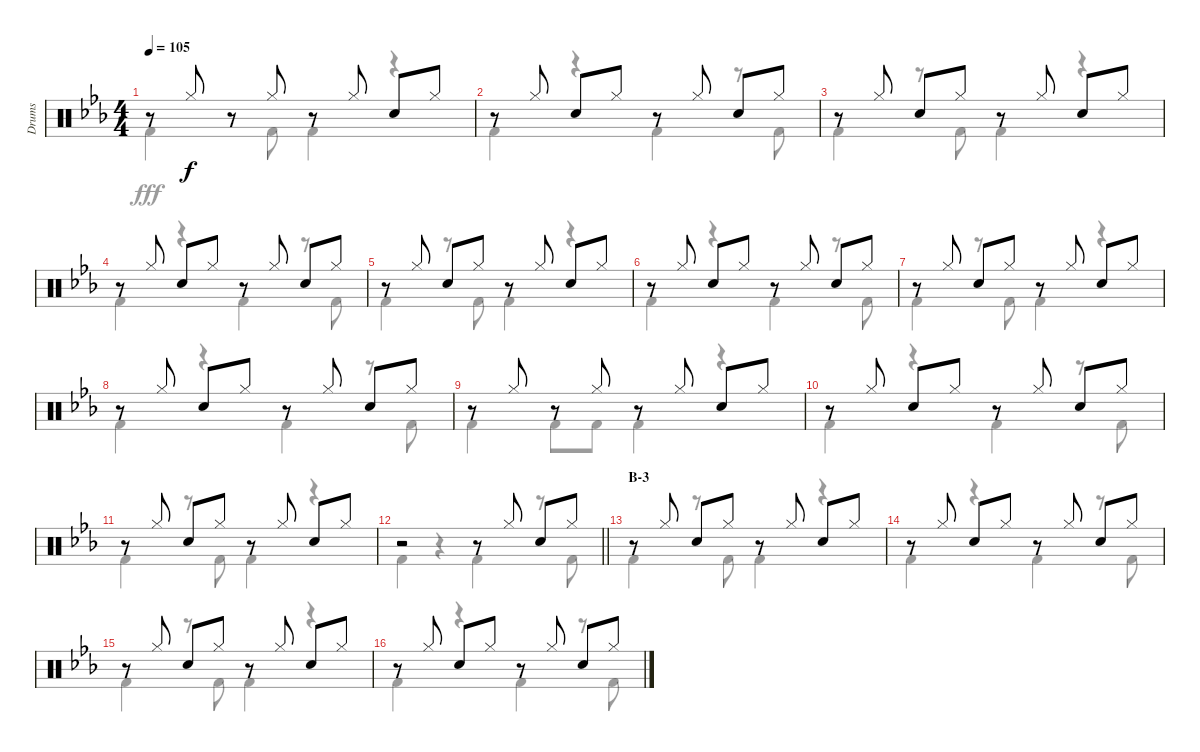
\track ("Drums" "Drums") {instrument percussion}
\staff {score}
\articulation defaults
\voice
\ts (4 4)
\tempo 105
\clef neutral
\ks eb
r.8{dy f} "Hi-Hat (closed)".8 r.8 "Hi-Hat (closed)".8 r.8 "Hi-Hat (closed)".8 "Snare (hit) 2".8 "Hi-Hat (closed)".8 |
r.8 "Hi-Hat (closed)".8 "Snare (hit) 2".8 "Hi-Hat (closed)".8 r.8 "Hi-Hat (closed)".8 "Snare (hit) 2".8 "Hi-Hat (closed)".8 |
r.8 "Hi-Hat (closed)".8 "Snare (hit) 2".8 "Hi-Hat (closed)".8 r.8 "Hi-Hat (closed)".8 "Snare (hit) 2".8 "Hi-Hat (closed)".8 |
r.8 "Hi-Hat (closed)".8 "Snare (hit) 2".8 "Hi-Hat (closed)".8 r.8 "Hi-Hat (closed)".8 "Snare (hit) 2".8 "Hi-Hat (closed)".8 |
r.8 "Hi-Hat (closed)".8 "Snare (hit) 2".8 "Hi-Hat (closed)".8 r.8 "Hi-Hat (closed)".8 "Snare (hit) 2".8 "Hi-Hat (closed)".8 |
r.8 "Hi-Hat (closed)".8 "Snare (hit) 2".8 "Hi-Hat (closed)".8 r.8 "Hi-Hat (closed)".8 "Snare (hit) 2".8 "Hi-Hat (closed)".8 |
r.8 "Hi-Hat (closed)".8 "Snare (hit) 2".8 "Hi-Hat (closed)".8 r.8 "Hi-Hat (closed)".8 "Snare (hit) 2".8 "Hi-Hat (closed)".8 |
r.8 "Hi-Hat (closed)".8 "Snare (hit) 2".8 "Hi-Hat (closed)".8 r.8 "Hi-Hat (closed)".8 "Snare (hit) 2".8 "Hi-Hat (closed)".8 |
r.8 "Hi-Hat (closed)".8 r.8 "Hi-Hat (closed)".8 r.8 "Hi-Hat (closed)".8 "Snare (hit) 2".8 "Hi-Hat (closed)".8 |
r.8 "Hi-Hat (closed)".8 "Snare (hit) 2".8 "Hi-Hat (closed)".8 r.8 "Hi-Hat (closed)".8 "Snare (hit) 2".8 "Hi-Hat (closed)".8 |
r.8 "Hi-Hat (closed)".8 "Snare (hit) 2".8 "Hi-Hat (closed)".8 r.8 "Hi-Hat (closed)".8 "Snare (hit) 2".8 "Hi-Hat (closed)".8 |
\barLineRight lightlight
r.2 r.8 "Hi-Hat (closed)".8 "Snare (hit) 2".8 "Hi-Hat (closed)".8 |
\section ("" "B-3")
r.8 "Hi-Hat (closed)".8 "Snare (hit) 2".8 "Hi-Hat (closed)".8 r.8 "Hi-Hat (closed)".8 "Snare (hit) 2".8 "Hi-Hat (closed)".8 |
r.8 "Hi-Hat (closed)".8 "Snare (hit) 2".8 "Hi-Hat (closed)".8 r.8 "Hi-Hat (closed)".8 "Snare (hit) 2".8 "Hi-Hat (closed)".8 |
r.8 "Hi-Hat (closed)".8 "Snare (hit) 2".8 "Hi-Hat (closed)".8 r.8 "Hi-Hat (closed)".8 "Snare (hit) 2".8 "Hi-Hat (closed)".8 |
r.8 "Hi-Hat (closed)".8 "Snare (hit) 2".8 "Hi-Hat (closed)".8 r.8 "Hi-Hat (closed)".8 "Snare (hit) 2".8 "Hi-Hat (closed)".8
\voice
\clef neutral
\ottava regular
\simile none
\ks eb "Kick (hit) 2".4{dy fff}
r.8 "Kick (hit) 2".8 "Kick (hit) 2".4 r.4 |
"Kick (hit) 2".4 r.4 "Kick (hit) 2".4 r.8 "Kick (hit) 2".8 |
"Kick (hit) 2".4 r.8 "Kick (hit) 2".8 "Kick (hit) 2".4 r.4 |
"Kick (hit) 2".4 r.4 "Kick (hit) 2".4 r.8 "Kick (hit) 2".8 |
"Kick (hit) 2".4 r.8 "Kick (hit) 2".8 "Kick (hit) 2".4 r.4 |
"Kick (hit) 2".4 r.4 "Kick (hit) 2".4 r.8 "Kick (hit) 2".8 |
"Kick (hit) 2".4 r.8 "Kick (hit) 2".8 "Kick (hit) 2".4 r.4 |
"Kick (hit) 2".4 r.4 "Kick (hit) 2".4 r.8 "Kick (hit) 2".8 |
"Kick (hit) 2".4 "Kick (hit) 2".8 "Kick (hit) 2".8 "Kick (hit) 2".4 r.4 |
"Kick (hit) 2".4 r.4 "Kick (hit) 2".4 r.8 "Kick (hit) 2".8 |
"Kick (hit) 2".4 r.8 "Kick (hit) 2".8 "Kick (hit) 2".4 r.4 |
\barLineRight lightlight "Kick (hit) 2".4
r.4 "Kick (hit) 2".4 r.8 "Kick (hit) 2".8 |
"Kick (hit) 2".4 r.8 "Kick (hit) 2".8 "Kick (hit) 2".4 r.4 |
"Kick (hit) 2".4 r.4 "Kick (hit) 2".4 r.8 "Kick (hit) 2".8 |
"Kick (hit) 2".4 r.8 "Kick (hit) 2".8 "Kick (hit) 2".4 r.4 |
"Kick (hit) 2".4 r.4 "Kick (hit) 2".4 r.8 "Kick (hit) 2".8
